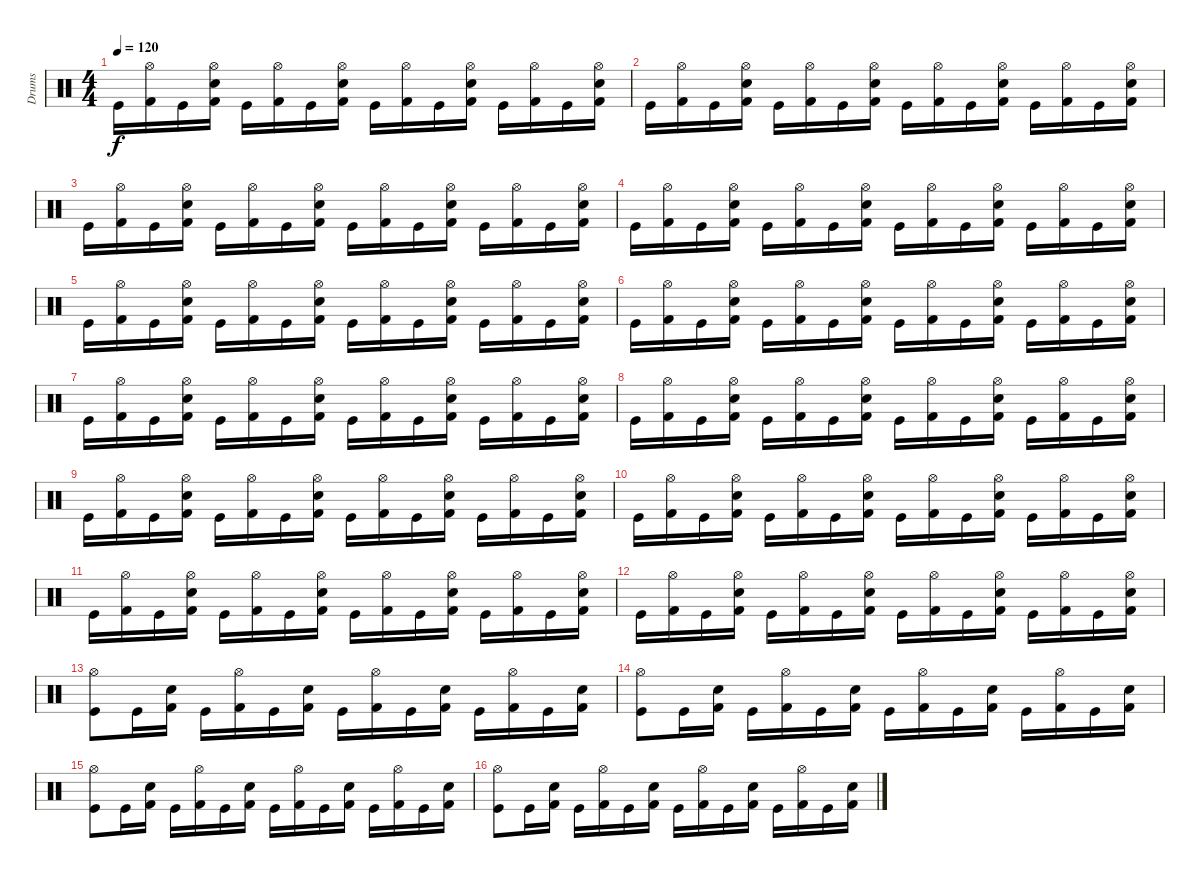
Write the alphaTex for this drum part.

\track ("Drums" "Drums") {instrument percussion}
\staff {score}
\articulation defaults
\ts (4 4)
\tempo 120
\clef neutral
\ks c "Kick (hit)".16{dy f}
("Hi-Hat (open)" "Kick (hit) 2").16 "Kick (hit)".16 ("Hi-Hat (open)" "Snare (hit) 2" "Kick (hit) 2").16 "Kick (hit)".16 ("Hi-Hat (open)" "Kick (hit) 2").16 "Kick (hit)".16 ("Hi-Hat (open)" "Snare (hit) 2" "Kick (hit) 2").16 "Kick (hit)".16 ("Hi-Hat (open)" "Kick (hit) 2").16 "Kick (hit)".16 ("Hi-Hat (open)" "Snare (hit) 2" "Kick (hit) 2").16 "Kick (hit)".16 ("Hi-Hat (open)" "Kick (hit) 2").16 "Kick (hit)".16 ("Hi-Hat (open)" "Snare (hit) 2" "Kick (hit) 2").16 |
"Kick (hit)".16 ("Hi-Hat (open)" "Kick (hit) 2").16 "Kick (hit)".16 ("Hi-Hat (open)" "Snare (hit) 2" "Kick (hit) 2").16 "Kick (hit)".16 ("Hi-Hat (open)" "Kick (hit) 2").16 "Kick (hit)".16 ("Hi-Hat (open)" "Snare (hit) 2" "Kick (hit) 2").16 "Kick (hit)".16 ("Hi-Hat (open)" "Kick (hit) 2").16 "Kick (hit)".16 ("Hi-Hat (open)" "Snare (hit) 2" "Kick (hit) 2").16 "Kick (hit)".16 ("Hi-Hat (open)" "Kick (hit) 2").16 "Kick (hit)".16 ("Hi-Hat (open)" "Snare (hit) 2" "Kick (hit) 2").16 |
"Kick (hit)".16 ("Hi-Hat (open)" "Kick (hit) 2").16 "Kick (hit)".16 ("Hi-Hat (open)" "Snare (hit) 2" "Kick (hit) 2").16 "Kick (hit)".16 ("Hi-Hat (open)" "Kick (hit) 2").16 "Kick (hit)".16 ("Hi-Hat (open)" "Snare (hit) 2" "Kick (hit) 2").16 "Kick (hit)".16 ("Hi-Hat (open)" "Kick (hit) 2").16 "Kick (hit)".16 ("Hi-Hat (open)" "Snare (hit) 2" "Kick (hit) 2").16 "Kick (hit)".16 ("Hi-Hat (open)" "Kick (hit) 2").16 "Kick (hit)".16 ("Hi-Hat (open)" "Snare (hit) 2" "Kick (hit) 2").16 |
"Kick (hit)".16 ("Hi-Hat (open)" "Kick (hit) 2").16 "Kick (hit)".16 ("Hi-Hat (open)" "Snare (hit) 2" "Kick (hit) 2").16 "Kick (hit)".16 ("Hi-Hat (open)" "Kick (hit) 2").16 "Kick (hit)".16 ("Hi-Hat (open)" "Snare (hit) 2" "Kick (hit) 2").16 "Kick (hit)".16 ("Hi-Hat (open)" "Kick (hit) 2").16 "Kick (hit)".16 ("Hi-Hat (open)" "Snare (hit) 2" "Kick (hit) 2").16 "Kick (hit)".16 ("Hi-Hat (open)" "Kick (hit) 2").16 "Kick (hit)".16 ("Hi-Hat (open)" "Snare (hit) 2" "Kick (hit) 2").16 |
"Kick (hit)".16 ("Hi-Hat (open)" "Kick (hit) 2").16 "Kick (hit)".16 ("Hi-Hat (open)" "Snare (hit) 2" "Kick (hit) 2").16 "Kick (hit)".16 ("Hi-Hat (open)" "Kick (hit) 2").16 "Kick (hit)".16 ("Hi-Hat (open)" "Snare (hit) 2" "Kick (hit) 2").16 "Kick (hit)".16 ("Hi-Hat (open)" "Kick (hit) 2").16 "Kick (hit)".16 ("Hi-Hat (open)" "Snare (hit) 2" "Kick (hit) 2").16 "Kick (hit)".16 ("Hi-Hat (open)" "Kick (hit) 2").16 "Kick (hit)".16 ("Hi-Hat (open)" "Snare (hit) 2" "Kick (hit) 2").16 |
"Kick (hit)".16 ("Hi-Hat (open)" "Kick (hit) 2").16 "Kick (hit)".16 ("Hi-Hat (open)" "Snare (hit) 2" "Kick (hit) 2").16 "Kick (hit)".16 ("Hi-Hat (open)" "Kick (hit) 2").16 "Kick (hit)".16 ("Hi-Hat (open)" "Snare (hit) 2" "Kick (hit) 2").16 "Kick (hit)".16 ("Hi-Hat (open)" "Kick (hit) 2").16 "Kick (hit)".16 ("Hi-Hat (open)" "Snare (hit) 2" "Kick (hit) 2").16 "Kick (hit)".16 ("Hi-Hat (open)" "Kick (hit) 2").16 "Kick (hit)".16 ("Hi-Hat (open)" "Snare (hit) 2" "Kick (hit) 2").16 |
"Kick (hit)".16 ("Hi-Hat (open)" "Kick (hit) 2").16 "Kick (hit)".16 ("Hi-Hat (open)" "Snare (hit) 2" "Kick (hit) 2").16 "Kick (hit)".16 ("Hi-Hat (open)" "Kick (hit) 2").16 "Kick (hit)".16 ("Hi-Hat (open)" "Snare (hit) 2" "Kick (hit) 2").16 "Kick (hit)".16 ("Hi-Hat (open)" "Kick (hit) 2").16 "Kick (hit)".16 ("Hi-Hat (open)" "Snare (hit) 2" "Kick (hit) 2").16 "Kick (hit)".16 ("Hi-Hat (open)" "Kick (hit) 2").16 "Kick (hit)".16 ("Hi-Hat (open)" "Snare (hit) 2" "Kick (hit) 2").16 |
"Kick (hit)".16 ("Hi-Hat (open)" "Kick (hit) 2").16 "Kick (hit)".16 ("Hi-Hat (open)" "Snare (hit) 2" "Kick (hit) 2").16 "Kick (hit)".16 ("Hi-Hat (open)" "Kick (hit) 2").16 "Kick (hit)".16 ("Hi-Hat (open)" "Snare (hit) 2" "Kick (hit) 2").16 "Kick (hit)".16 ("Hi-Hat (open)" "Kick (hit) 2").16 "Kick (hit)".16 ("Hi-Hat (open)" "Snare (hit) 2" "Kick (hit) 2").16 "Kick (hit)".16 ("Hi-Hat (open)" "Kick (hit) 2").16 "Kick (hit)".16 ("Hi-Hat (open)" "Snare (hit) 2" "Kick (hit) 2").16 |
"Kick (hit)".16 ("Hi-Hat (open)" "Kick (hit) 2").16 "Kick (hit)".16 ("Hi-Hat (open)" "Snare (hit) 2" "Kick (hit) 2").16 "Kick (hit)".16 ("Hi-Hat (open)" "Kick (hit) 2").16 "Kick (hit)".16 ("Hi-Hat (open)" "Snare (hit) 2" "Kick (hit) 2").16 "Kick (hit)".16 ("Hi-Hat (open)" "Kick (hit) 2").16 "Kick (hit)".16 ("Hi-Hat (open)" "Snare (hit) 2" "Kick (hit) 2").16 "Kick (hit)".16 ("Hi-Hat (open)" "Kick (hit) 2").16 "Kick (hit)".16 ("Hi-Hat (open)" "Snare (hit) 2" "Kick (hit) 2").16 |
"Kick (hit)".16 ("Hi-Hat (open)" "Kick (hit) 2").16 "Kick (hit)".16 ("Hi-Hat (open)" "Snare (hit) 2" "Kick (hit) 2").16 "Kick (hit)".16 ("Hi-Hat (open)" "Kick (hit) 2").16 "Kick (hit)".16 ("Hi-Hat (open)" "Snare (hit) 2" "Kick (hit) 2").16 "Kick (hit)".16 ("Hi-Hat (open)" "Kick (hit) 2").16 "Kick (hit)".16 ("Hi-Hat (open)" "Snare (hit) 2" "Kick (hit) 2").16 "Kick (hit)".16 ("Hi-Hat (open)" "Kick (hit) 2").16 "Kick (hit)".16 ("Hi-Hat (open)" "Snare (hit) 2" "Kick (hit) 2").16 |
"Kick (hit)".16 ("Hi-Hat (open)" "Kick (hit) 2").16 "Kick (hit)".16 ("Hi-Hat (open)" "Snare (hit) 2" "Kick (hit) 2").16 "Kick (hit)".16 ("Hi-Hat (open)" "Kick (hit) 2").16 "Kick (hit)".16 ("Hi-Hat (open)" "Snare (hit) 2" "Kick (hit) 2").16 "Kick (hit)".16 ("Hi-Hat (open)" "Kick (hit) 2").16 "Kick (hit)".16 ("Hi-Hat (open)" "Snare (hit) 2" "Kick (hit) 2").16 "Kick (hit)".16 ("Hi-Hat (open)" "Kick (hit) 2").16 "Kick (hit)".16 ("Hi-Hat (open)" "Snare (hit) 2" "Kick (hit) 2").16 |
"Kick (hit)".16 ("Hi-Hat (open)" "Kick (hit) 2").16 "Kick (hit)".16 ("Hi-Hat (open)" "Snare (hit) 2" "Kick (hit) 2").16 "Kick (hit)".16 ("Hi-Hat (open)" "Kick (hit) 2").16 "Kick (hit)".16 ("Hi-Hat (open)" "Snare (hit) 2" "Kick (hit) 2").16 "Kick (hit)".16 ("Hi-Hat (open)" "Kick (hit) 2").16 "Kick (hit)".16 ("Hi-Hat (open)" "Snare (hit) 2" "Kick (hit) 2").16 "Kick (hit)".16 ("Hi-Hat (open)" "Kick (hit) 2").16 "Kick (hit)".16 ("Hi-Hat (open)" "Snare (hit) 2" "Kick (hit) 2").16 |
("Hi-Hat (open)" "Kick (hit)").8 "Kick (hit)".16 ("Snare (hit) 2" "Kick (hit) 2").16 "Kick (hit)".16 ("Hi-Hat (open)" "Kick (hit) 2").16 "Kick (hit)".16 ("Snare (hit) 2" "Kick (hit) 2").16 "Kick (hit)".16 ("Hi-Hat (open)" "Kick (hit) 2").16 "Kick (hit)".16 ("Snare (hit) 2" "Kick (hit) 2").16 "Kick (hit)".16 ("Hi-Hat (open)" "Kick (hit) 2").16 "Kick (hit)".16 ("Snare (hit) 2" "Kick (hit) 2").16 |
("Hi-Hat (open)" "Kick (hit)").8 "Kick (hit)".16 ("Snare (hit) 2" "Kick (hit) 2").16 "Kick (hit)".16 ("Hi-Hat (open)" "Kick (hit) 2").16 "Kick (hit)".16 ("Snare (hit) 2" "Kick (hit) 2").16 "Kick (hit)".16 ("Hi-Hat (open)" "Kick (hit) 2").16 "Kick (hit)".16 ("Snare (hit) 2" "Kick (hit) 2").16 "Kick (hit)".16 ("Hi-Hat (open)" "Kick (hit) 2").16 "Kick (hit)".16 ("Snare (hit) 2" "Kick (hit) 2").16 |
("Hi-Hat (open)" "Kick (hit)").8 "Kick (hit)".16 ("Snare (hit) 2" "Kick (hit) 2").16 "Kick (hit)".16 ("Hi-Hat (open)" "Kick (hit) 2").16 "Kick (hit)".16 ("Snare (hit) 2" "Kick (hit) 2").16 "Kick (hit)".16 ("Hi-Hat (open)" "Kick (hit) 2").16 "Kick (hit)".16 ("Snare (hit) 2" "Kick (hit) 2").16 "Kick (hit)".16 ("Hi-Hat (open)" "Kick (hit) 2").16 "Kick (hit)".16 ("Snare (hit) 2" "Kick (hit) 2").16 |
("Hi-Hat (open)" "Kick (hit)").8 "Kick (hit)".16 ("Snare (hit) 2" "Kick (hit) 2").16 "Kick (hit)".16 ("Hi-Hat (open)" "Kick (hit) 2").16 "Kick (hit)".16 ("Snare (hit) 2" "Kick (hit) 2").16 "Kick (hit)".16 ("Hi-Hat (open)" "Kick (hit) 2").16 "Kick (hit)".16 ("Snare (hit) 2" "Kick (hit) 2").16 "Kick (hit)".16 ("Hi-Hat (open)" "Kick (hit) 2").16 "Kick (hit)".16 ("Snare (hit) 2" "Kick (hit) 2").16
